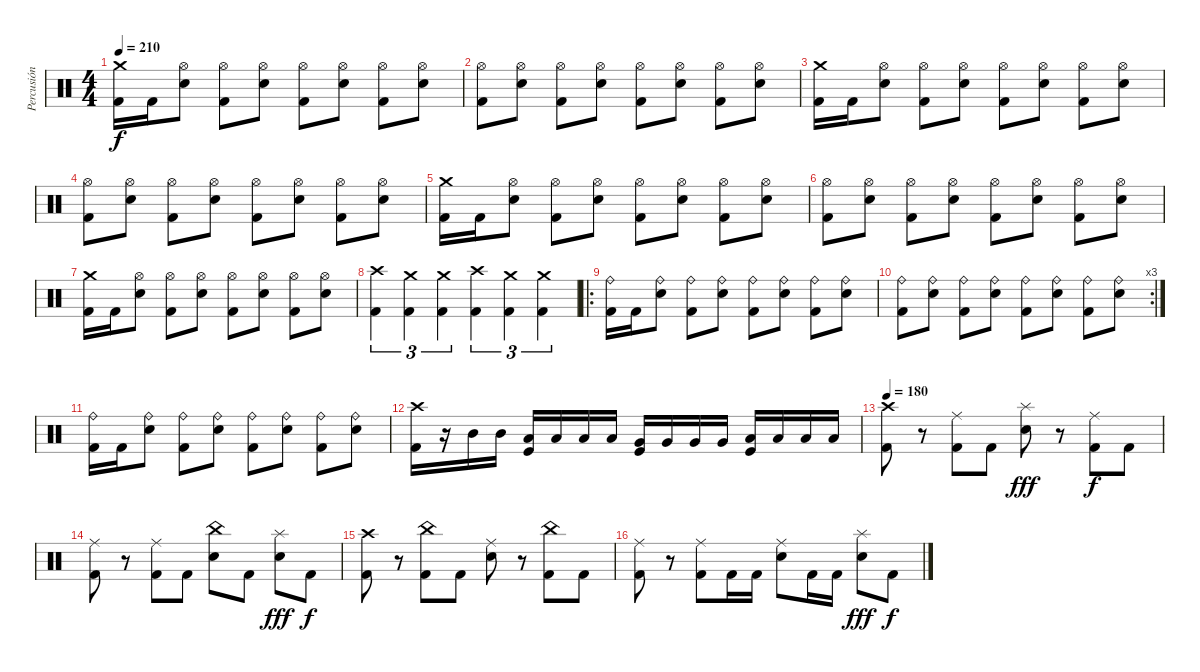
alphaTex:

\track ("Percusión" "Percusión") {instrument percussion}
\staff {score}
\articulation defaults
\ts (4 4)
\tempo 210
\clef neutral
\ks c
("Crash medium (hit)" "Kick (hit) 2").16{dy f} "Kick (hit) 2".16 ("Hi-Hat (open)" "Snare (hit) 2").8 ("Hi-Hat (open)" "Kick (hit) 2").8 ("Hi-Hat (open)" "Snare (hit) 2").8 ("Hi-Hat (open)" "Kick (hit) 2").8 ("Hi-Hat (open)" "Snare (hit) 2").8 ("Hi-Hat (open)" "Kick (hit) 2").8 ("Hi-Hat (open)" "Snare (hit) 2").8 |
("Hi-Hat (open)" "Kick (hit) 2").8 ("Hi-Hat (open)" "Snare (hit) 2").8 ("Hi-Hat (open)" "Kick (hit) 2").8 ("Hi-Hat (open)" "Snare (hit) 2").8 ("Hi-Hat (open)" "Kick (hit) 2").8 ("Hi-Hat (open)" "Snare (hit) 2").8 ("Hi-Hat (open)" "Kick (hit) 2").8 ("Hi-Hat (open)" "Snare (hit) 2").8 |
("Crash medium (hit)" "Kick (hit) 2").16 "Kick (hit) 2".16 ("Hi-Hat (open)" "Snare (hit) 2").8 ("Hi-Hat (open)" "Kick (hit) 2").8 ("Hi-Hat (open)" "Snare (hit) 2").8 ("Hi-Hat (open)" "Kick (hit) 2").8 ("Hi-Hat (open)" "Snare (hit) 2").8 ("Hi-Hat (open)" "Kick (hit) 2").8 ("Hi-Hat (open)" "Snare (hit) 2").8 |
("Hi-Hat (open)" "Kick (hit) 2").8 ("Hi-Hat (open)" "Snare (hit) 2").8 ("Hi-Hat (open)" "Kick (hit) 2").8 ("Hi-Hat (open)" "Snare (hit) 2").8 ("Hi-Hat (open)" "Kick (hit) 2").8 ("Hi-Hat (open)" "Snare (hit) 2").8 ("Hi-Hat (open)" "Kick (hit) 2").8 ("Hi-Hat (open)" "Snare (hit) 2").8 |
("Crash medium (hit)" "Kick (hit) 2").16 "Kick (hit) 2".16 ("Hi-Hat (open)" "Snare (hit) 2").8 ("Hi-Hat (open)" "Kick (hit) 2").8 ("Hi-Hat (open)" "Snare (hit) 2").8 ("Hi-Hat (open)" "Kick (hit) 2").8 ("Hi-Hat (open)" "Snare (hit) 2").8 ("Hi-Hat (open)" "Kick (hit) 2").8 ("Hi-Hat (open)" "Snare (hit) 2").8 |
("Hi-Hat (open)" "Kick (hit) 2").8 ("Hi-Hat (open)" "Snare (hit) 2").8 ("Hi-Hat (open)" "Kick (hit) 2").8 ("Hi-Hat (open)" "Snare (hit) 2").8 ("Hi-Hat (open)" "Kick (hit) 2").8 ("Hi-Hat (open)" "Snare (hit) 2").8 ("Hi-Hat (open)" "Kick (hit) 2").8 ("Hi-Hat (open)" "Snare (hit) 2").8 |
("Crash medium (hit)" "Kick (hit) 2").16 "Kick (hit) 2".16 ("Hi-Hat (open)" "Snare (hit) 2").8 ("Hi-Hat (open)" "Kick (hit) 2").8 ("Hi-Hat (open)" "Snare (hit) 2").8 ("Hi-Hat (open)" "Kick (hit) 2").8 ("Hi-Hat (open)" "Snare (hit) 2").8 ("Hi-Hat (open)" "Kick (hit) 2").8 ("Hi-Hat (open)" "Snare (hit) 2").8 |
("Crash high (hit)" "Kick (hit) 2").4{tu (3 2)} ("Crash medium (hit)" "Kick (hit) 2").4{tu (3 2)} ("Crash medium (hit)" "Kick (hit) 2").4{tu (3 2)} ("Crash high (hit)" "Kick (hit) 2").4{tu (3 2)} ("Crash medium (hit)" "Kick (hit) 2").4{tu (3 2)} ("Crash medium (hit)" "Kick (hit) 2").4{tu (3 2)} |
\ro
("Ride (bell)" "Kick (hit) 2").16 "Kick (hit) 2".16 ("Ride (bell)" "Snare (hit) 2").8 ("Ride (bell)" "Kick (hit) 2").8 ("Ride (bell)" "Snare (hit) 2").8 ("Ride (bell)" "Kick (hit) 2").8 ("Ride (bell)" "Snare (hit) 2").8 ("Ride (bell)" "Kick (hit) 2").8 ("Ride (bell)" "Snare (hit) 2").8 |
\rc 3
("Ride (bell)" "Kick (hit) 2").8 ("Ride (bell)" "Snare (hit) 2").8 ("Ride (bell)" "Kick (hit) 2").8 ("Ride (bell)" "Snare (hit) 2").8 ("Ride (bell)" "Kick (hit) 2").8 ("Ride (bell)" "Snare (hit) 2").8 ("Ride (bell)" "Kick (hit) 2").8 ("Ride (bell)" "Snare (hit) 2").8 |
("Ride (bell)" "Kick (hit) 2").16 "Kick (hit) 2".16 ("Ride (bell)" "Snare (hit) 2").8 ("Ride (bell)" "Kick (hit) 2").8 ("Ride (bell)" "Snare (hit) 2").8 ("Ride (bell)" "Kick (hit) 2").8 ("Ride (bell)" "Snare (hit) 2").8 ("Ride (bell)" "Kick (hit) 2").8 ("Ride (bell)" "Snare (hit) 2").8 |
("Crash high (hit)" "Kick (hit) 2").16 r.16 "Mid Tom (hit)".16 "Mid Tom (hit)".16 ("Low Tom (hit)" "Kick (hit)").16 "Low Tom (hit)".16 "Low Tom (hit)".16 "Low Tom (hit)".16 ("Very Low Tom (hit)" "Kick (hit)").16 "Very Low Tom (hit)".16 "Very Low Tom (hit)".16 "Very Low Tom (hit)".16 ("Low Floor Tom (hit)" "Kick (hit)").16 "Low Floor Tom (hit)".16 "Low Floor Tom (hit)".16 "Low Floor Tom (hit)".16 |
\tempo 180
("Crash high (hit)" "Kick (hit) 2").8 r.8 ("Ride (middle)" "Kick (hit) 2").8 "Kick (hit) 2".8 ("Splash (hit)" "Snare (hit) 2").8{dy fff} r.8 ("Ride (middle)" "Kick (hit) 2").8{dy f} "Kick (hit) 2".8 |
("Ride (middle)" "Kick (hit) 2").8 r.8 ("Ride (middle)" "Kick (hit) 2").8 "Kick (hit) 2".8 ("China (hit)" "Snare (hit) 2").8 "Kick (hit) 2".8 ("Splash (hit)" "Snare (hit) 2").8{dy fff} "Kick (hit) 2".8{dy f} |
("Crash high (hit)" "Kick (hit) 2").8 r.8 ("China (hit)" "Kick (hit) 2").8 "Kick (hit) 2".8 ("Ride (middle)" "Snare (hit) 2").8 r.8 ("China (hit)" "Kick (hit) 2").8 "Kick (hit) 2".8 |
("Ride (middle)" "Kick (hit) 2").8 r.8 ("Ride (middle)" "Kick (hit) 2").8 "Kick (hit) 2".16 "Kick (hit) 2".16 ("Ride (middle)" "Snare (hit) 2").8 "Kick (hit) 2".16 "Kick (hit) 2".16 ("Splash (hit)" "Snare (hit) 2").8{dy fff} "Kick (hit) 2".8{dy f}
